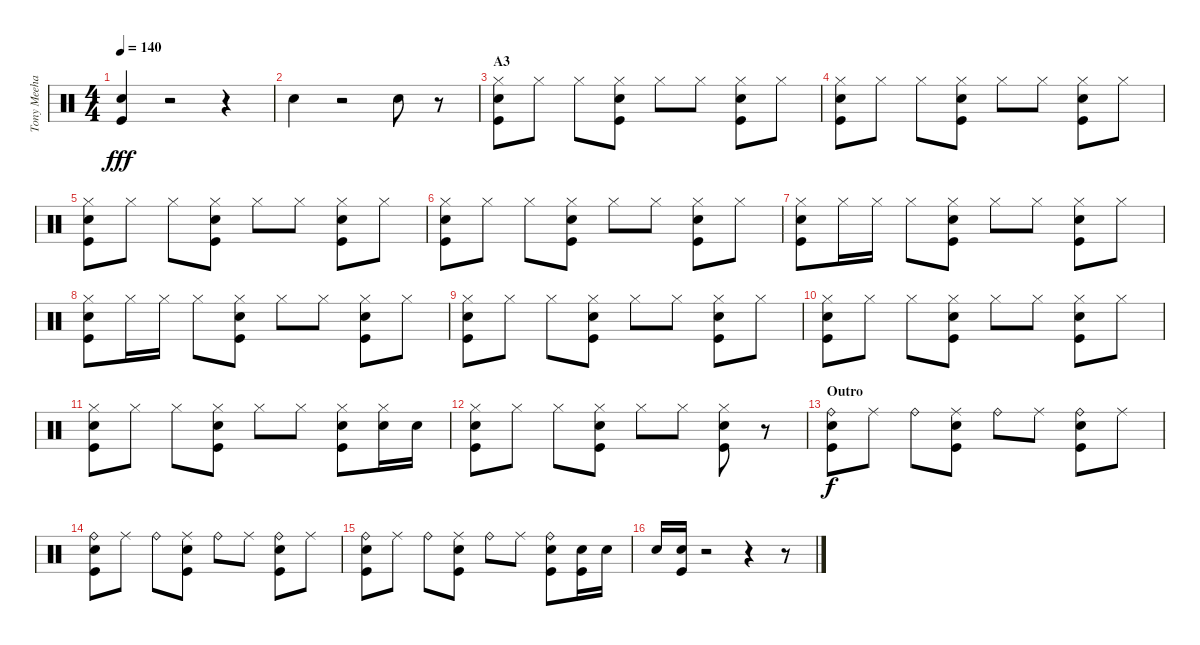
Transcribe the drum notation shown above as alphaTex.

\track ("Tony Meehan" "Tony Meeha") {instrument percussion}
\staff {score}
\articulation defaults
\ts (4 4)
\tempo 140
\clef neutral
\ks c
("Electric Snare (hit)" "Kick (hit)").4{dy fff} r.2 r.4 |
"Electric Snare (hit)".4 r.2 "Electric Snare (hit)".8 r.8 |
\section ("" "A3")
("Hi-Hat (closed)" "Electric Snare (hit)" "Kick (hit)").8 "Hi-Hat (closed)".8 "Hi-Hat (closed)".8 ("Hi-Hat (closed)" "Electric Snare (hit)" "Kick (hit)").8 "Hi-Hat (closed)".8 "Hi-Hat (closed)".8 ("Hi-Hat (closed)" "Electric Snare (hit)" "Kick (hit)").8 "Hi-Hat (closed)".8 |
("Hi-Hat (closed)" "Electric Snare (hit)" "Kick (hit)").8 "Hi-Hat (closed)".8 "Hi-Hat (closed)".8 ("Hi-Hat (closed)" "Electric Snare (hit)" "Kick (hit)").8 "Hi-Hat (closed)".8 "Hi-Hat (closed)".8 ("Hi-Hat (closed)" "Electric Snare (hit)" "Kick (hit)").8 "Hi-Hat (closed)".8 |
("Hi-Hat (closed)" "Electric Snare (hit)" "Kick (hit)").8 "Hi-Hat (closed)".8 "Hi-Hat (closed)".8 ("Hi-Hat (closed)" "Electric Snare (hit)" "Kick (hit)").8 "Hi-Hat (closed)".8 "Hi-Hat (closed)".8 ("Hi-Hat (closed)" "Electric Snare (hit)" "Kick (hit)").8 "Hi-Hat (closed)".8 |
("Hi-Hat (closed)" "Electric Snare (hit)" "Kick (hit)").8 "Hi-Hat (closed)".8 "Hi-Hat (closed)".8 ("Hi-Hat (closed)" "Electric Snare (hit)" "Kick (hit)").8 "Hi-Hat (closed)".8 "Hi-Hat (closed)".8 ("Hi-Hat (closed)" "Electric Snare (hit)" "Kick (hit)").8 "Hi-Hat (closed)".8 |
("Hi-Hat (closed)" "Electric Snare (hit)" "Kick (hit)").8 "Hi-Hat (closed)".16 "Hi-Hat (closed)".16 "Hi-Hat (closed)".8 ("Hi-Hat (closed)" "Electric Snare (hit)" "Kick (hit)").8 "Hi-Hat (closed)".8 "Hi-Hat (closed)".8 ("Hi-Hat (closed)" "Electric Snare (hit)" "Kick (hit)").8 "Hi-Hat (closed)".8 |
("Hi-Hat (closed)" "Electric Snare (hit)" "Kick (hit)").8 "Hi-Hat (closed)".16 "Hi-Hat (closed)".16 "Hi-Hat (closed)".8 ("Hi-Hat (closed)" "Electric Snare (hit)" "Kick (hit)").8 "Hi-Hat (closed)".8 "Hi-Hat (closed)".8 ("Hi-Hat (closed)" "Electric Snare (hit)" "Kick (hit)").8 "Hi-Hat (closed)".8 |
("Hi-Hat (closed)" "Electric Snare (hit)" "Kick (hit)").8 "Hi-Hat (closed)".8 "Hi-Hat (closed)".8 ("Hi-Hat (closed)" "Electric Snare (hit)" "Kick (hit)").8 "Hi-Hat (closed)".8 "Hi-Hat (closed)".8 ("Hi-Hat (closed)" "Electric Snare (hit)" "Kick (hit)").8 "Hi-Hat (closed)".8 |
("Hi-Hat (closed)" "Electric Snare (hit)" "Kick (hit)").8 "Hi-Hat (closed)".8 "Hi-Hat (closed)".8 ("Hi-Hat (closed)" "Electric Snare (hit)" "Kick (hit)").8 "Hi-Hat (closed)".8 "Hi-Hat (closed)".8 ("Hi-Hat (closed)" "Electric Snare (hit)" "Kick (hit)").8 "Hi-Hat (closed)".8 |
("Hi-Hat (closed)" "Electric Snare (hit)" "Kick (hit)").8 "Hi-Hat (closed)".8 "Hi-Hat (closed)".8 ("Hi-Hat (closed)" "Electric Snare (hit)" "Kick (hit)").8 "Hi-Hat (closed)".8 "Hi-Hat (closed)".8 ("Hi-Hat (closed)" "Electric Snare (hit)" "Kick (hit)").8 ("Hi-Hat (closed)" "Electric Snare (hit)").16 "Electric Snare (hit)".16 |
("Hi-Hat (closed)" "Electric Snare (hit)" "Kick (hit)").8 "Hi-Hat (closed)".8 "Hi-Hat (closed)".8 ("Hi-Hat (closed)" "Electric Snare (hit)" "Kick (hit)").8 "Hi-Hat (closed)".8 "Hi-Hat (closed)".8 ("Hi-Hat (closed)" "Electric Snare (hit)" "Kick (hit)").8 r.8 |
\section ("" "Outro")
("Ride (bell)" "Electric Snare (hit)" "Kick (hit)").8{dy f} "Ride (middle)".8 "Ride (bell)".8 ("Ride (middle)" "Electric Snare (hit)" "Kick (hit)").8 "Ride (bell)".8 "Ride (middle)".8 ("Ride (bell)" "Electric Snare (hit)" "Kick (hit)").8 "Ride (middle)".8 |
("Ride (bell)" "Electric Snare (hit)" "Kick (hit)").8 "Ride (middle)".8 "Ride (bell)".8 ("Ride (middle)" "Electric Snare (hit)" "Kick (hit)").8 "Ride (bell)".8 "Ride (middle)".8 ("Ride (bell)" "Electric Snare (hit)" "Kick (hit)").8 "Ride (middle)".8 |
("Ride (bell)" "Electric Snare (hit)" "Kick (hit)").8 "Ride (middle)".8 "Ride (bell)".8 ("Ride (middle)" "Kick (hit)" "Electric Snare (hit)").8 "Ride (bell)".8 "Ride (middle)".8 ("Ride (bell)" "Kick (hit)" "Electric Snare (hit)").8 ("Electric Snare (hit)" "Kick (hit)").16 "Electric Snare (hit)".16 |
"Electric Snare (hit)".16 ("Electric Snare (hit)" "Kick (hit)").16 r.2 r.4 r.8
